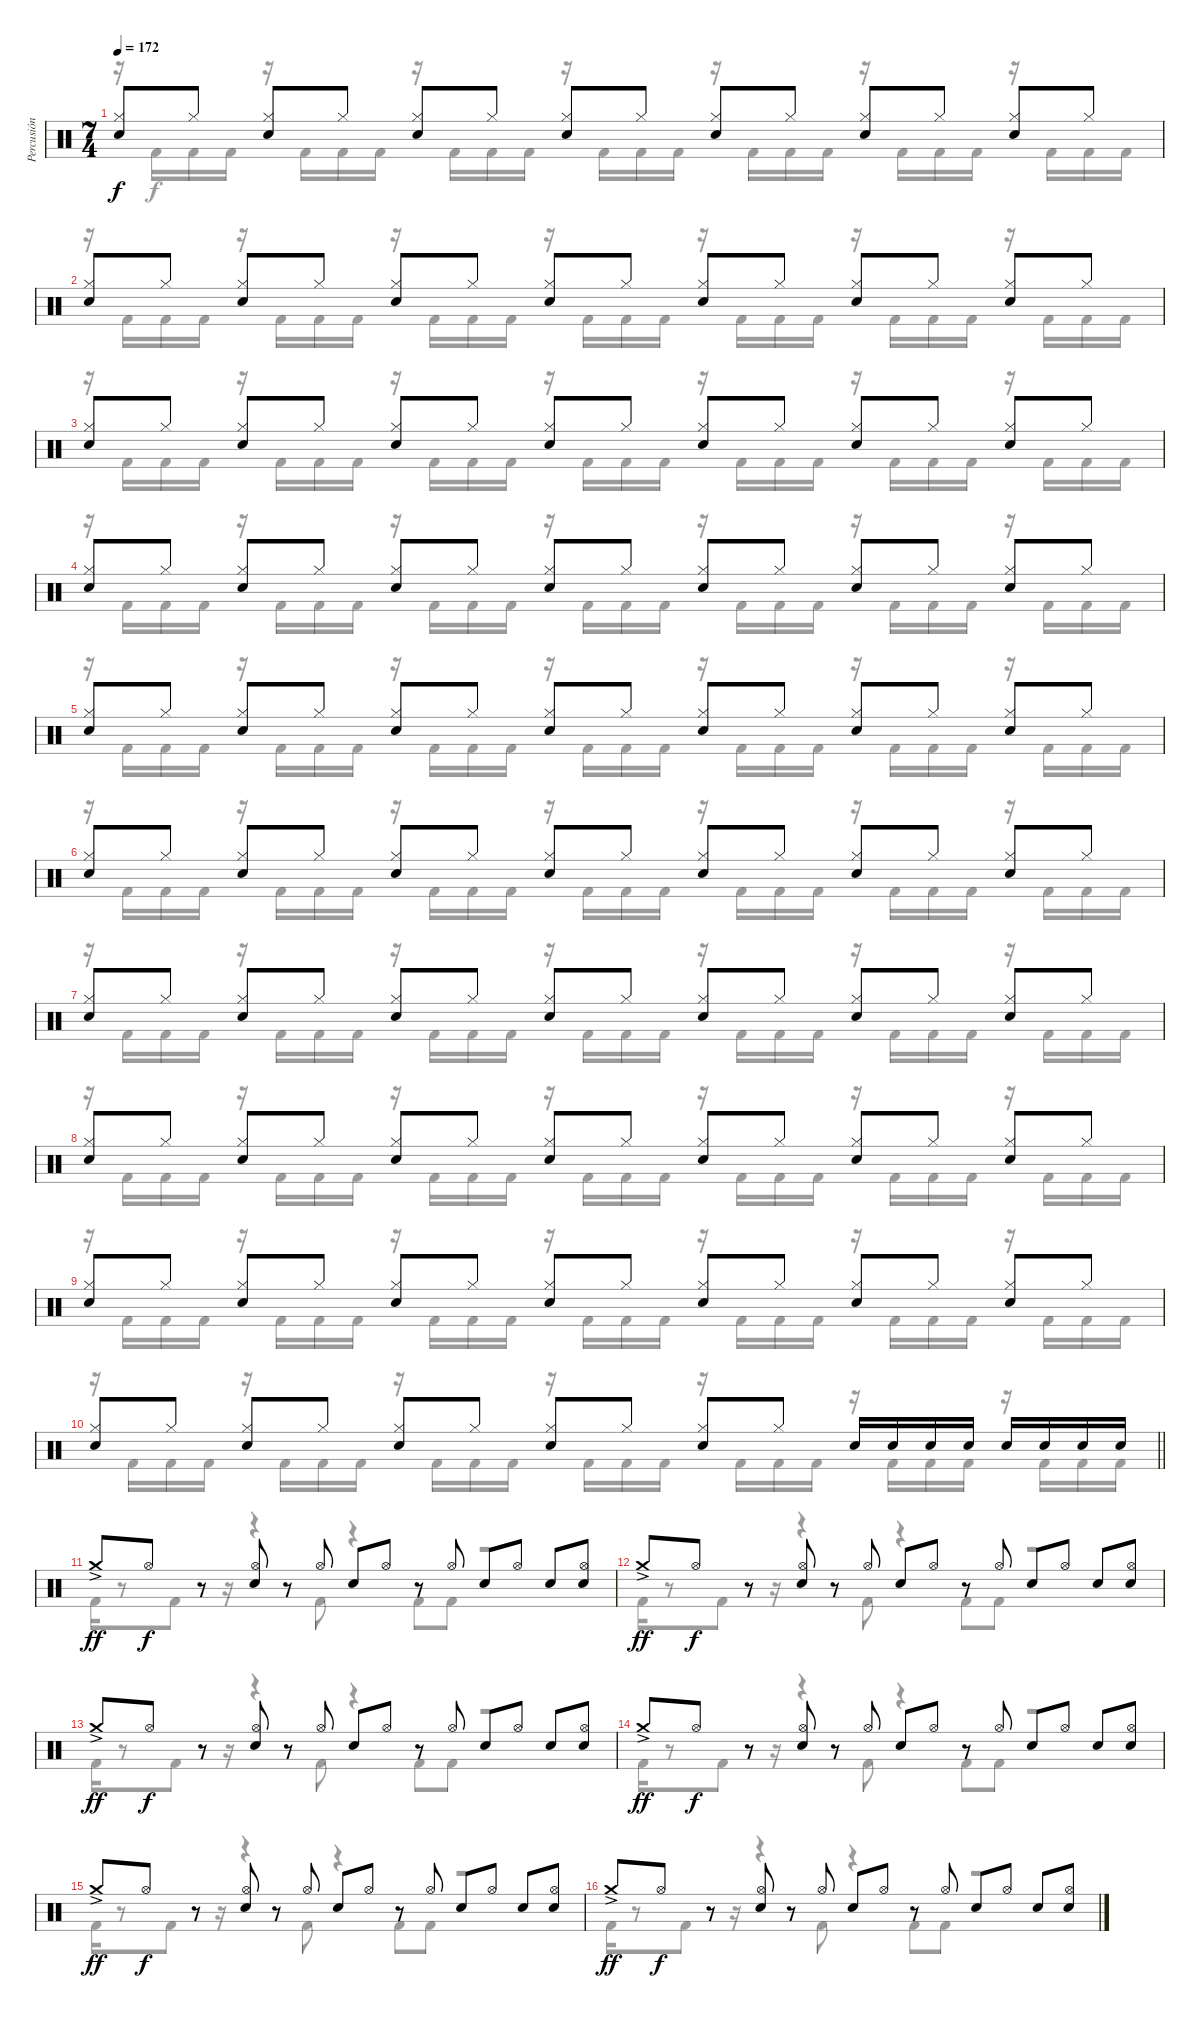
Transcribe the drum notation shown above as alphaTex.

\track ("Percusión" "Percusión") {instrument percussion}
\staff {score}
\articulation defaults
\voice
\ts (7 4)
\tempo 172
\clef neutral
\ks c
("Hi-Hat (closed)" "Snare (hit) 2").8{dy f} "Hi-Hat (closed)".8 ("Hi-Hat (closed)" "Snare (hit) 2").8 "Hi-Hat (closed)".8 ("Hi-Hat (closed)" "Snare (hit) 2").8 "Hi-Hat (closed)".8 ("Hi-Hat (closed)" "Snare (hit) 2").8 "Hi-Hat (closed)".8 ("Hi-Hat (closed)" "Snare (hit) 2").8 "Hi-Hat (closed)".8 ("Hi-Hat (closed)" "Snare (hit) 2").8 "Hi-Hat (closed)".8 ("Hi-Hat (closed)" "Snare (hit) 2").8 "Hi-Hat (closed)".8 |
("Hi-Hat (closed)" "Snare (hit) 2").8 "Hi-Hat (closed)".8 ("Hi-Hat (closed)" "Snare (hit) 2").8 "Hi-Hat (closed)".8 ("Hi-Hat (closed)" "Snare (hit) 2").8 "Hi-Hat (closed)".8 ("Hi-Hat (closed)" "Snare (hit) 2").8 "Hi-Hat (closed)".8 ("Hi-Hat (closed)" "Snare (hit) 2").8 "Hi-Hat (closed)".8 ("Hi-Hat (closed)" "Snare (hit) 2").8 "Hi-Hat (closed)".8 ("Hi-Hat (closed)" "Snare (hit) 2").8 "Hi-Hat (closed)".8 |
("Hi-Hat (closed)" "Snare (hit) 2").8 "Hi-Hat (closed)".8 ("Hi-Hat (closed)" "Snare (hit) 2").8 "Hi-Hat (closed)".8 ("Hi-Hat (closed)" "Snare (hit) 2").8 "Hi-Hat (closed)".8 ("Hi-Hat (closed)" "Snare (hit) 2").8 "Hi-Hat (closed)".8 ("Hi-Hat (closed)" "Snare (hit) 2").8 "Hi-Hat (closed)".8 ("Hi-Hat (closed)" "Snare (hit) 2").8 "Hi-Hat (closed)".8 ("Hi-Hat (closed)" "Snare (hit) 2").8 "Hi-Hat (closed)".8 |
("Hi-Hat (closed)" "Snare (hit) 2").8 "Hi-Hat (closed)".8 ("Hi-Hat (closed)" "Snare (hit) 2").8 "Hi-Hat (closed)".8 ("Hi-Hat (closed)" "Snare (hit) 2").8 "Hi-Hat (closed)".8 ("Hi-Hat (closed)" "Snare (hit) 2").8 "Hi-Hat (closed)".8 ("Hi-Hat (closed)" "Snare (hit) 2").8 "Hi-Hat (closed)".8 ("Hi-Hat (closed)" "Snare (hit) 2").8 "Hi-Hat (closed)".8 ("Hi-Hat (closed)" "Snare (hit) 2").8 "Hi-Hat (closed)".8 |
("Hi-Hat (closed)" "Snare (hit) 2").8 "Hi-Hat (closed)".8 ("Hi-Hat (closed)" "Snare (hit) 2").8 "Hi-Hat (closed)".8 ("Hi-Hat (closed)" "Snare (hit) 2").8 "Hi-Hat (closed)".8 ("Hi-Hat (closed)" "Snare (hit) 2").8 "Hi-Hat (closed)".8 ("Hi-Hat (closed)" "Snare (hit) 2").8 "Hi-Hat (closed)".8 ("Hi-Hat (closed)" "Snare (hit) 2").8 "Hi-Hat (closed)".8 ("Hi-Hat (closed)" "Snare (hit) 2").8 "Hi-Hat (closed)".8 |
("Hi-Hat (closed)" "Snare (hit) 2").8 "Hi-Hat (closed)".8 ("Hi-Hat (closed)" "Snare (hit) 2").8 "Hi-Hat (closed)".8 ("Hi-Hat (closed)" "Snare (hit) 2").8 "Hi-Hat (closed)".8 ("Hi-Hat (closed)" "Snare (hit) 2").8 "Hi-Hat (closed)".8 ("Hi-Hat (closed)" "Snare (hit) 2").8 "Hi-Hat (closed)".8 ("Hi-Hat (closed)" "Snare (hit) 2").8 "Hi-Hat (closed)".8 ("Hi-Hat (closed)" "Snare (hit) 2").8 "Hi-Hat (closed)".8 |
("Hi-Hat (closed)" "Snare (hit) 2").8 "Hi-Hat (closed)".8 ("Hi-Hat (closed)" "Snare (hit) 2").8 "Hi-Hat (closed)".8 ("Hi-Hat (closed)" "Snare (hit) 2").8 "Hi-Hat (closed)".8 ("Hi-Hat (closed)" "Snare (hit) 2").8 "Hi-Hat (closed)".8 ("Hi-Hat (closed)" "Snare (hit) 2").8 "Hi-Hat (closed)".8 ("Hi-Hat (closed)" "Snare (hit) 2").8 "Hi-Hat (closed)".8 ("Hi-Hat (closed)" "Snare (hit) 2").8 "Hi-Hat (closed)".8 |
("Hi-Hat (closed)" "Snare (hit) 2").8 "Hi-Hat (closed)".8 ("Hi-Hat (closed)" "Snare (hit) 2").8 "Hi-Hat (closed)".8 ("Hi-Hat (closed)" "Snare (hit) 2").8 "Hi-Hat (closed)".8 ("Hi-Hat (closed)" "Snare (hit) 2").8 "Hi-Hat (closed)".8 ("Hi-Hat (closed)" "Snare (hit) 2").8 "Hi-Hat (closed)".8 ("Hi-Hat (closed)" "Snare (hit) 2").8 "Hi-Hat (closed)".8 ("Hi-Hat (closed)" "Snare (hit) 2").8 "Hi-Hat (closed)".8 |
("Hi-Hat (closed)" "Snare (hit) 2").8 "Hi-Hat (closed)".8 ("Hi-Hat (closed)" "Snare (hit) 2").8 "Hi-Hat (closed)".8 ("Hi-Hat (closed)" "Snare (hit) 2").8 "Hi-Hat (closed)".8 ("Hi-Hat (closed)" "Snare (hit) 2").8 "Hi-Hat (closed)".8 ("Hi-Hat (closed)" "Snare (hit) 2").8 "Hi-Hat (closed)".8 ("Hi-Hat (closed)" "Snare (hit) 2").8 "Hi-Hat (closed)".8 ("Hi-Hat (closed)" "Snare (hit) 2").8 "Hi-Hat (closed)".8 |
\barLineRight lightlight
("Hi-Hat (closed)" "Snare (hit) 2").8 "Hi-Hat (closed)".8 ("Hi-Hat (closed)" "Snare (hit) 2").8 "Hi-Hat (closed)".8 ("Hi-Hat (closed)" "Snare (hit) 2").8 "Hi-Hat (closed)".8 ("Hi-Hat (closed)" "Snare (hit) 2").8 "Hi-Hat (closed)".8 ("Hi-Hat (closed)" "Snare (hit) 2").8 "Hi-Hat (closed)".8 "Snare (hit) 2".16 "Snare (hit) 2".16 "Snare (hit) 2".16 "Snare (hit) 2".16 "Snare (hit) 2".16 "Snare (hit) 2".16 "Snare (hit) 2".16 "Snare (hit) 2".16 |
"Crash medium (hit)"{ac}.8{dy ff} "Hi-Hat (open)".8{dy f} r.8 ("Hi-Hat (open)" "Snare (hit) 2").8 r.8 "Hi-Hat (open)".8 "Snare (hit) 2".8 "Hi-Hat (open)".8 r.8 "Hi-Hat (open)".8 "Snare (hit) 2".8 "Hi-Hat (open)".8 "Electric Snare (hit)".8 ("Hi-Hat (open)" "Electric Snare (hit)").8 |
"Crash medium (hit)"{ac}.8{dy ff} "Hi-Hat (open)".8{dy f} r.8 ("Hi-Hat (open)" "Snare (hit) 2").8 r.8 "Hi-Hat (open)".8 "Snare (hit) 2".8 "Hi-Hat (open)".8 r.8 "Hi-Hat (open)".8 "Snare (hit) 2".8 "Hi-Hat (open)".8 "Electric Snare (hit)".8 ("Hi-Hat (open)" "Electric Snare (hit)").8 |
"Crash medium (hit)"{ac}.8{dy ff} "Hi-Hat (open)".8{dy f} r.8 ("Hi-Hat (open)" "Snare (hit) 2").8 r.8 "Hi-Hat (open)".8 "Snare (hit) 2".8 "Hi-Hat (open)".8 r.8 "Hi-Hat (open)".8 "Snare (hit) 2".8 "Hi-Hat (open)".8 "Electric Snare (hit)".8 ("Hi-Hat (open)" "Electric Snare (hit)").8 |
"Crash medium (hit)"{ac}.8{dy ff} "Hi-Hat (open)".8{dy f} r.8 ("Hi-Hat (open)" "Snare (hit) 2").8 r.8 "Hi-Hat (open)".8 "Snare (hit) 2".8 "Hi-Hat (open)".8 r.8 "Hi-Hat (open)".8 "Snare (hit) 2".8 "Hi-Hat (open)".8 "Electric Snare (hit)".8 ("Hi-Hat (open)" "Electric Snare (hit)").8 |
"Crash medium (hit)"{ac}.8{dy ff} "Hi-Hat (open)".8{dy f} r.8 ("Hi-Hat (open)" "Snare (hit) 2").8 r.8 "Hi-Hat (open)".8 "Snare (hit) 2".8 "Hi-Hat (open)".8 r.8 "Hi-Hat (open)".8 "Snare (hit) 2".8 "Hi-Hat (open)".8 "Electric Snare (hit)".8 ("Hi-Hat (open)" "Electric Snare (hit)").8 |
"Crash medium (hit)"{ac}.8{dy ff} "Hi-Hat (open)".8{dy f} r.8 ("Hi-Hat (open)" "Snare (hit) 2").8 r.8 "Hi-Hat (open)".8 "Snare (hit) 2".8 "Hi-Hat (open)".8 r.8 "Hi-Hat (open)".8 "Snare (hit) 2".8 "Hi-Hat (open)".8 "Electric Snare (hit)".8 ("Hi-Hat (open)" "Electric Snare (hit)").8
\voice
\clef neutral
\ottava regular
\simile none
\ks c
r.16{dy f} "Kick (hit) 2".16 "Kick (hit) 2".16 "Kick (hit) 2".16 r.16 "Kick (hit) 2".16 "Kick (hit) 2".16 "Kick (hit) 2".16 r.16 "Kick (hit) 2".16 "Kick (hit) 2".16 "Kick (hit) 2".16 r.16 "Kick (hit) 2".16 "Kick (hit) 2".16 "Kick (hit) 2".16 r.16 "Kick (hit) 2".16 "Kick (hit) 2".16 "Kick (hit) 2".16 r.16 "Kick (hit) 2".16 "Kick (hit) 2".16 "Kick (hit) 2".16 r.16 "Kick (hit) 2".16 "Kick (hit) 2".16 "Kick (hit) 2".16 |
r.16 "Kick (hit) 2".16 "Kick (hit) 2".16 "Kick (hit) 2".16 r.16 "Kick (hit) 2".16 "Kick (hit) 2".16 "Kick (hit) 2".16 r.16 "Kick (hit) 2".16 "Kick (hit) 2".16 "Kick (hit) 2".16 r.16 "Kick (hit) 2".16 "Kick (hit) 2".16 "Kick (hit) 2".16 r.16 "Kick (hit) 2".16 "Kick (hit) 2".16 "Kick (hit) 2".16 r.16 "Kick (hit) 2".16 "Kick (hit) 2".16 "Kick (hit) 2".16 r.16 "Kick (hit) 2".16 "Kick (hit) 2".16 "Kick (hit) 2".16 |
r.16 "Kick (hit) 2".16 "Kick (hit) 2".16 "Kick (hit) 2".16 r.16 "Kick (hit) 2".16 "Kick (hit) 2".16 "Kick (hit) 2".16 r.16 "Kick (hit) 2".16 "Kick (hit) 2".16 "Kick (hit) 2".16 r.16 "Kick (hit) 2".16 "Kick (hit) 2".16 "Kick (hit) 2".16 r.16 "Kick (hit) 2".16 "Kick (hit) 2".16 "Kick (hit) 2".16 r.16 "Kick (hit) 2".16 "Kick (hit) 2".16 "Kick (hit) 2".16 r.16 "Kick (hit) 2".16 "Kick (hit) 2".16 "Kick (hit) 2".16 |
r.16 "Kick (hit) 2".16 "Kick (hit) 2".16 "Kick (hit) 2".16 r.16 "Kick (hit) 2".16 "Kick (hit) 2".16 "Kick (hit) 2".16 r.16 "Kick (hit) 2".16 "Kick (hit) 2".16 "Kick (hit) 2".16 r.16 "Kick (hit) 2".16 "Kick (hit) 2".16 "Kick (hit) 2".16 r.16 "Kick (hit) 2".16 "Kick (hit) 2".16 "Kick (hit) 2".16 r.16 "Kick (hit) 2".16 "Kick (hit) 2".16 "Kick (hit) 2".16 r.16 "Kick (hit) 2".16 "Kick (hit) 2".16 "Kick (hit) 2".16 |
r.16 "Kick (hit) 2".16 "Kick (hit) 2".16 "Kick (hit) 2".16 r.16 "Kick (hit) 2".16 "Kick (hit) 2".16 "Kick (hit) 2".16 r.16 "Kick (hit) 2".16 "Kick (hit) 2".16 "Kick (hit) 2".16 r.16 "Kick (hit) 2".16 "Kick (hit) 2".16 "Kick (hit) 2".16 r.16 "Kick (hit) 2".16 "Kick (hit) 2".16 "Kick (hit) 2".16 r.16 "Kick (hit) 2".16 "Kick (hit) 2".16 "Kick (hit) 2".16 r.16 "Kick (hit) 2".16 "Kick (hit) 2".16 "Kick (hit) 2".16 |
r.16 "Kick (hit) 2".16 "Kick (hit) 2".16 "Kick (hit) 2".16 r.16 "Kick (hit) 2".16 "Kick (hit) 2".16 "Kick (hit) 2".16 r.16 "Kick (hit) 2".16 "Kick (hit) 2".16 "Kick (hit) 2".16 r.16 "Kick (hit) 2".16 "Kick (hit) 2".16 "Kick (hit) 2".16 r.16 "Kick (hit) 2".16 "Kick (hit) 2".16 "Kick (hit) 2".16 r.16 "Kick (hit) 2".16 "Kick (hit) 2".16 "Kick (hit) 2".16 r.16 "Kick (hit) 2".16 "Kick (hit) 2".16 "Kick (hit) 2".16 |
r.16 "Kick (hit) 2".16 "Kick (hit) 2".16 "Kick (hit) 2".16 r.16 "Kick (hit) 2".16 "Kick (hit) 2".16 "Kick (hit) 2".16 r.16 "Kick (hit) 2".16 "Kick (hit) 2".16 "Kick (hit) 2".16 r.16 "Kick (hit) 2".16 "Kick (hit) 2".16 "Kick (hit) 2".16 r.16 "Kick (hit) 2".16 "Kick (hit) 2".16 "Kick (hit) 2".16 r.16 "Kick (hit) 2".16 "Kick (hit) 2".16 "Kick (hit) 2".16 r.16 "Kick (hit) 2".16 "Kick (hit) 2".16 "Kick (hit) 2".16 |
r.16 "Kick (hit) 2".16 "Kick (hit) 2".16 "Kick (hit) 2".16 r.16 "Kick (hit) 2".16 "Kick (hit) 2".16 "Kick (hit) 2".16 r.16 "Kick (hit) 2".16 "Kick (hit) 2".16 "Kick (hit) 2".16 r.16 "Kick (hit) 2".16 "Kick (hit) 2".16 "Kick (hit) 2".16 r.16 "Kick (hit) 2".16 "Kick (hit) 2".16 "Kick (hit) 2".16 r.16 "Kick (hit) 2".16 "Kick (hit) 2".16 "Kick (hit) 2".16 r.16 "Kick (hit) 2".16 "Kick (hit) 2".16 "Kick (hit) 2".16 |
r.16 "Kick (hit) 2".16 "Kick (hit) 2".16 "Kick (hit) 2".16 r.16 "Kick (hit) 2".16 "Kick (hit) 2".16 "Kick (hit) 2".16 r.16 "Kick (hit) 2".16 "Kick (hit) 2".16 "Kick (hit) 2".16 r.16 "Kick (hit) 2".16 "Kick (hit) 2".16 "Kick (hit) 2".16 r.16 "Kick (hit) 2".16 "Kick (hit) 2".16 "Kick (hit) 2".16 r.16 "Kick (hit) 2".16 "Kick (hit) 2".16 "Kick (hit) 2".16 r.16 "Kick (hit) 2".16 "Kick (hit) 2".16 "Kick (hit) 2".16 |
\barLineRight lightlight
r.16 "Kick (hit) 2".16 "Kick (hit) 2".16 "Kick (hit) 2".16 r.16 "Kick (hit) 2".16 "Kick (hit) 2".16 "Kick (hit) 2".16 r.16 "Kick (hit) 2".16 "Kick (hit) 2".16 "Kick (hit) 2".16 r.16 "Kick (hit) 2".16 "Kick (hit) 2".16 "Kick (hit) 2".16 r.16 "Kick (hit) 2".16 "Kick (hit) 2".16 "Kick (hit) 2".16 r.16 "Kick (hit) 2".16 "Kick (hit) 2".16 "Kick (hit) 2".16 r.16 "Kick (hit) 2".16 "Kick (hit) 2".16 "Kick (hit) 2".16 |
"Kick (hit) 2".16 r.8 "Kick (hit) 2".8 r.16 r.4 "Kick (hit) 2".8 r.4 "Kick (hit) 2".8 "Kick (hit) 2".8 r.2 |
"Kick (hit) 2".16 r.8 "Kick (hit) 2".8 r.16 r.4 "Kick (hit) 2".8 r.4 "Kick (hit) 2".8 "Kick (hit) 2".8 r.2 |
"Kick (hit) 2".16 r.8 "Kick (hit) 2".8 r.16 r.4 "Kick (hit) 2".8 r.4 "Kick (hit) 2".8 "Kick (hit) 2".8 r.2 |
"Kick (hit) 2".16 r.8 "Kick (hit) 2".8 r.16 r.4 "Kick (hit) 2".8 r.4 "Kick (hit) 2".8 "Kick (hit) 2".8 r.2 |
"Kick (hit) 2".16 r.8 "Kick (hit) 2".8 r.16 r.4 "Kick (hit) 2".8 r.4 "Kick (hit) 2".8 "Kick (hit) 2".8 r.2 |
"Kick (hit) 2".16 r.8 "Kick (hit) 2".8 r.16 r.4 "Kick (hit) 2".8 r.4 "Kick (hit) 2".8 "Kick (hit) 2".8 r.2
